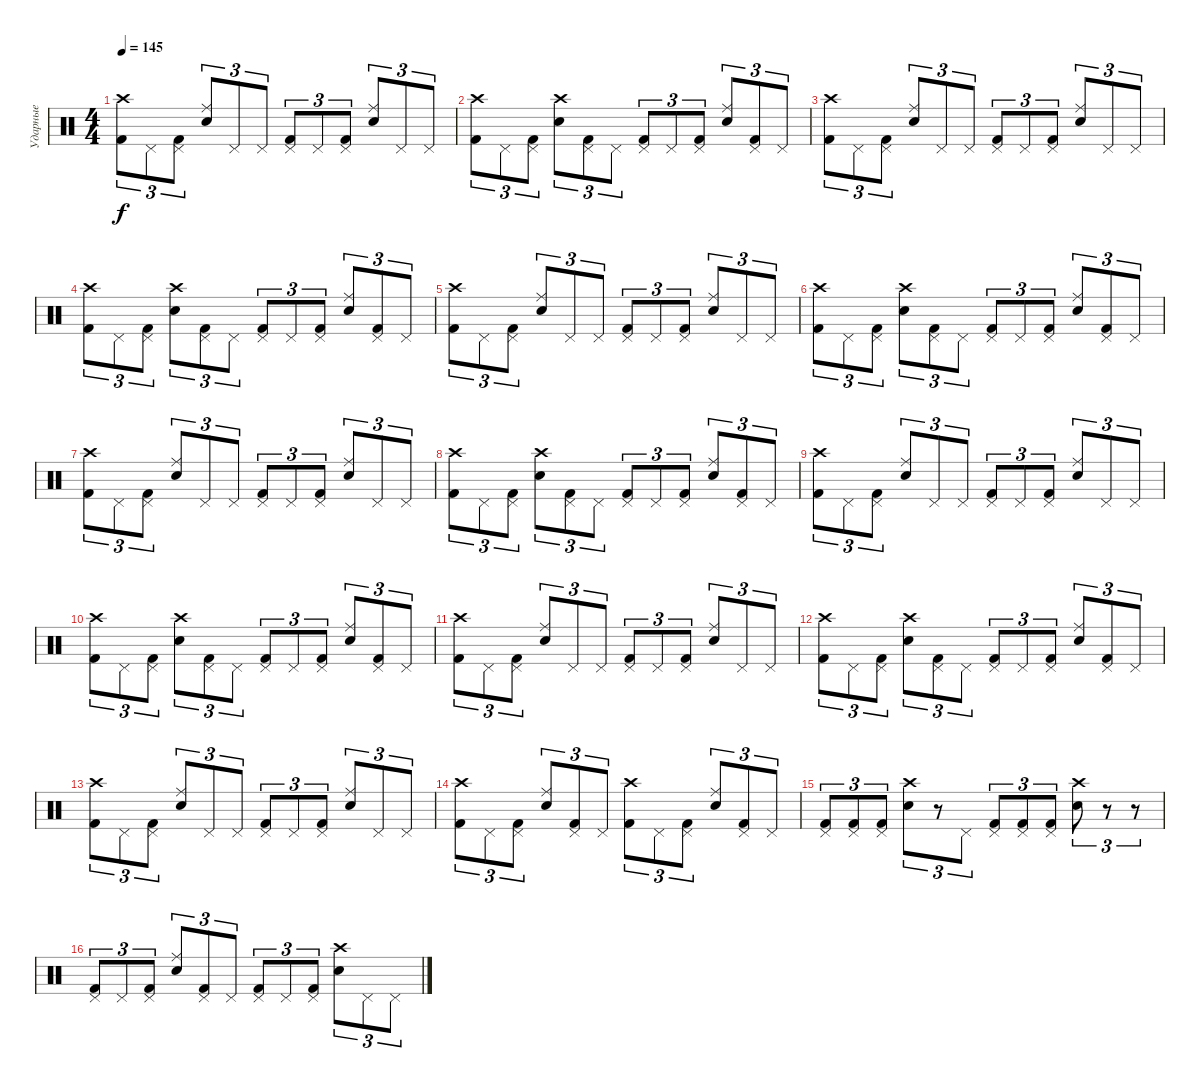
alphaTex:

\track ("Ударные" "Ударные") {instrument percussion}
\staff {score}
\articulation defaults
\ts (4 4)
\tempo 145
\clef neutral
\ks c
("Kick (hit) 2" "Crash high (hit)").8{tu (3 2) dy f} "Pedal Hi-Hat (hit)".8{tu (3 2)} ("Kick (hit) 2" "Pedal Hi-Hat (hit)").8{tu (3 2)} ("Electric Snare (hit)" "Ride (middle)").8{tu (3 2)} "Pedal Hi-Hat (hit)".8{tu (3 2)} "Pedal Hi-Hat (hit)".8{tu (3 2)} ("Kick (hit) 2" "Pedal Hi-Hat (hit)").8{tu (3 2)} "Pedal Hi-Hat (hit)".8{tu (3 2)} ("Pedal Hi-Hat (hit)" "Kick (hit) 2").8{tu (3 2)} ("Electric Snare (hit)" "Ride (middle)").8{tu (3 2)} "Pedal Hi-Hat (hit)".8{tu (3 2)} "Pedal Hi-Hat (hit)".8{tu (3 2)} |
("Kick (hit) 2" "Crash high (hit)").8{tu (3 2)} "Pedal Hi-Hat (hit)".8{tu (3 2)} ("Kick (hit) 2" "Pedal Hi-Hat (hit)").8{tu (3 2)} ("Electric Snare (hit)" "Crash high (hit)").8{tu (3 2)} ("Kick (hit) 2" "Pedal Hi-Hat (hit)").8{tu (3 2)} "Pedal Hi-Hat (hit)".8{tu (3 2)} ("Kick (hit) 2" "Pedal Hi-Hat (hit)").8{tu (3 2)} "Pedal Hi-Hat (hit)".8{tu (3 2)} ("Pedal Hi-Hat (hit)" "Kick (hit) 2").8{tu (3 2)} ("Electric Snare (hit)" "Ride (middle)").8{tu (3 2)} ("Kick (hit) 2" "Pedal Hi-Hat (hit)").8{tu (3 2)} "Pedal Hi-Hat (hit)".8{tu (3 2)} |
("Kick (hit) 2" "Crash high (hit)").8{tu (3 2)} "Pedal Hi-Hat (hit)".8{tu (3 2)} ("Kick (hit) 2" "Pedal Hi-Hat (hit)").8{tu (3 2)} ("Electric Snare (hit)" "Ride (middle)").8{tu (3 2)} "Pedal Hi-Hat (hit)".8{tu (3 2)} "Pedal Hi-Hat (hit)".8{tu (3 2)} ("Kick (hit) 2" "Pedal Hi-Hat (hit)").8{tu (3 2)} "Pedal Hi-Hat (hit)".8{tu (3 2)} ("Pedal Hi-Hat (hit)" "Kick (hit) 2").8{tu (3 2)} ("Electric Snare (hit)" "Ride (middle)").8{tu (3 2)} "Pedal Hi-Hat (hit)".8{tu (3 2)} "Pedal Hi-Hat (hit)".8{tu (3 2)} |
("Kick (hit) 2" "Crash high (hit)").8{tu (3 2)} "Pedal Hi-Hat (hit)".8{tu (3 2)} ("Kick (hit) 2" "Pedal Hi-Hat (hit)").8{tu (3 2)} ("Electric Snare (hit)" "Crash high (hit)").8{tu (3 2)} ("Kick (hit) 2" "Pedal Hi-Hat (hit)").8{tu (3 2)} "Pedal Hi-Hat (hit)".8{tu (3 2)} ("Kick (hit) 2" "Pedal Hi-Hat (hit)").8{tu (3 2)} "Pedal Hi-Hat (hit)".8{tu (3 2)} ("Pedal Hi-Hat (hit)" "Kick (hit) 2").8{tu (3 2)} ("Electric Snare (hit)" "Ride (middle)").8{tu (3 2)} ("Kick (hit) 2" "Pedal Hi-Hat (hit)").8{tu (3 2)} "Pedal Hi-Hat (hit)".8{tu (3 2)} |
("Kick (hit) 2" "Crash high (hit)").8{tu (3 2)} "Pedal Hi-Hat (hit)".8{tu (3 2)} ("Kick (hit) 2" "Pedal Hi-Hat (hit)").8{tu (3 2)} ("Electric Snare (hit)" "Ride (middle)").8{tu (3 2)} "Pedal Hi-Hat (hit)".8{tu (3 2)} "Pedal Hi-Hat (hit)".8{tu (3 2)} ("Kick (hit) 2" "Pedal Hi-Hat (hit)").8{tu (3 2)} "Pedal Hi-Hat (hit)".8{tu (3 2)} ("Pedal Hi-Hat (hit)" "Kick (hit) 2").8{tu (3 2)} ("Electric Snare (hit)" "Ride (middle)").8{tu (3 2)} "Pedal Hi-Hat (hit)".8{tu (3 2)} "Pedal Hi-Hat (hit)".8{tu (3 2)} |
("Kick (hit) 2" "Crash high (hit)").8{tu (3 2)} "Pedal Hi-Hat (hit)".8{tu (3 2)} ("Kick (hit) 2" "Pedal Hi-Hat (hit)").8{tu (3 2)} ("Electric Snare (hit)" "Crash high (hit)").8{tu (3 2)} ("Kick (hit) 2" "Pedal Hi-Hat (hit)").8{tu (3 2)} "Pedal Hi-Hat (hit)".8{tu (3 2)} ("Kick (hit) 2" "Pedal Hi-Hat (hit)").8{tu (3 2)} "Pedal Hi-Hat (hit)".8{tu (3 2)} ("Pedal Hi-Hat (hit)" "Kick (hit) 2").8{tu (3 2)} ("Electric Snare (hit)" "Ride (middle)").8{tu (3 2)} ("Kick (hit) 2" "Pedal Hi-Hat (hit)").8{tu (3 2)} "Pedal Hi-Hat (hit)".8{tu (3 2)} |
("Kick (hit) 2" "Crash high (hit)").8{tu (3 2)} "Pedal Hi-Hat (hit)".8{tu (3 2)} ("Kick (hit) 2" "Pedal Hi-Hat (hit)").8{tu (3 2)} ("Electric Snare (hit)" "Ride (middle)").8{tu (3 2)} "Pedal Hi-Hat (hit)".8{tu (3 2)} "Pedal Hi-Hat (hit)".8{tu (3 2)} ("Kick (hit) 2" "Pedal Hi-Hat (hit)").8{tu (3 2)} "Pedal Hi-Hat (hit)".8{tu (3 2)} ("Pedal Hi-Hat (hit)" "Kick (hit) 2").8{tu (3 2)} ("Electric Snare (hit)" "Ride (middle)").8{tu (3 2)} "Pedal Hi-Hat (hit)".8{tu (3 2)} "Pedal Hi-Hat (hit)".8{tu (3 2)} |
("Kick (hit) 2" "Crash high (hit)").8{tu (3 2)} "Pedal Hi-Hat (hit)".8{tu (3 2)} ("Kick (hit) 2" "Pedal Hi-Hat (hit)").8{tu (3 2)} ("Electric Snare (hit)" "Crash high (hit)").8{tu (3 2)} ("Kick (hit) 2" "Pedal Hi-Hat (hit)").8{tu (3 2)} "Pedal Hi-Hat (hit)".8{tu (3 2)} ("Kick (hit) 2" "Pedal Hi-Hat (hit)").8{tu (3 2)} "Pedal Hi-Hat (hit)".8{tu (3 2)} ("Pedal Hi-Hat (hit)" "Kick (hit) 2").8{tu (3 2)} ("Electric Snare (hit)" "Ride (middle)").8{tu (3 2)} ("Kick (hit) 2" "Pedal Hi-Hat (hit)").8{tu (3 2)} "Pedal Hi-Hat (hit)".8{tu (3 2)} |
("Kick (hit) 2" "Crash high (hit)").8{tu (3 2)} "Pedal Hi-Hat (hit)".8{tu (3 2)} ("Kick (hit) 2" "Pedal Hi-Hat (hit)").8{tu (3 2)} ("Electric Snare (hit)" "Ride (middle)").8{tu (3 2)} "Pedal Hi-Hat (hit)".8{tu (3 2)} "Pedal Hi-Hat (hit)".8{tu (3 2)} ("Kick (hit) 2" "Pedal Hi-Hat (hit)").8{tu (3 2)} "Pedal Hi-Hat (hit)".8{tu (3 2)} ("Pedal Hi-Hat (hit)" "Kick (hit) 2").8{tu (3 2)} ("Electric Snare (hit)" "Ride (middle)").8{tu (3 2)} "Pedal Hi-Hat (hit)".8{tu (3 2)} "Pedal Hi-Hat (hit)".8{tu (3 2)} |
("Kick (hit) 2" "Crash high (hit)").8{tu (3 2)} "Pedal Hi-Hat (hit)".8{tu (3 2)} ("Kick (hit) 2" "Pedal Hi-Hat (hit)").8{tu (3 2)} ("Electric Snare (hit)" "Crash high (hit)").8{tu (3 2)} ("Kick (hit) 2" "Pedal Hi-Hat (hit)").8{tu (3 2)} "Pedal Hi-Hat (hit)".8{tu (3 2)} ("Kick (hit) 2" "Pedal Hi-Hat (hit)").8{tu (3 2)} "Pedal Hi-Hat (hit)".8{tu (3 2)} ("Pedal Hi-Hat (hit)" "Kick (hit) 2").8{tu (3 2)} ("Electric Snare (hit)" "Ride (middle)").8{tu (3 2)} ("Kick (hit) 2" "Pedal Hi-Hat (hit)").8{tu (3 2)} "Pedal Hi-Hat (hit)".8{tu (3 2)} |
("Kick (hit) 2" "Crash high (hit)").8{tu (3 2)} "Pedal Hi-Hat (hit)".8{tu (3 2)} ("Kick (hit) 2" "Pedal Hi-Hat (hit)").8{tu (3 2)} ("Electric Snare (hit)" "Ride (middle)").8{tu (3 2)} "Pedal Hi-Hat (hit)".8{tu (3 2)} "Pedal Hi-Hat (hit)".8{tu (3 2)} ("Kick (hit) 2" "Pedal Hi-Hat (hit)").8{tu (3 2)} "Pedal Hi-Hat (hit)".8{tu (3 2)} ("Pedal Hi-Hat (hit)" "Kick (hit) 2").8{tu (3 2)} ("Electric Snare (hit)" "Ride (middle)").8{tu (3 2)} "Pedal Hi-Hat (hit)".8{tu (3 2)} "Pedal Hi-Hat (hit)".8{tu (3 2)} |
("Kick (hit) 2" "Crash high (hit)").8{tu (3 2)} "Pedal Hi-Hat (hit)".8{tu (3 2)} ("Kick (hit) 2" "Pedal Hi-Hat (hit)").8{tu (3 2)} ("Electric Snare (hit)" "Crash high (hit)").8{tu (3 2)} ("Kick (hit) 2" "Pedal Hi-Hat (hit)").8{tu (3 2)} "Pedal Hi-Hat (hit)".8{tu (3 2)} ("Kick (hit) 2" "Pedal Hi-Hat (hit)").8{tu (3 2)} "Pedal Hi-Hat (hit)".8{tu (3 2)} ("Pedal Hi-Hat (hit)" "Kick (hit) 2").8{tu (3 2)} ("Electric Snare (hit)" "Ride (middle)").8{tu (3 2)} ("Kick (hit) 2" "Pedal Hi-Hat (hit)").8{tu (3 2)} "Pedal Hi-Hat (hit)".8{tu (3 2)} |
("Kick (hit) 2" "Crash high (hit)").8{tu (3 2)} "Pedal Hi-Hat (hit)".8{tu (3 2)} ("Kick (hit) 2" "Pedal Hi-Hat (hit)").8{tu (3 2)} ("Electric Snare (hit)" "Ride (middle)").8{tu (3 2)} "Pedal Hi-Hat (hit)".8{tu (3 2)} "Pedal Hi-Hat (hit)".8{tu (3 2)} ("Kick (hit) 2" "Pedal Hi-Hat (hit)").8{tu (3 2)} "Pedal Hi-Hat (hit)".8{tu (3 2)} ("Pedal Hi-Hat (hit)" "Kick (hit) 2").8{tu (3 2)} ("Electric Snare (hit)" "Ride (middle)").8{tu (3 2)} "Pedal Hi-Hat (hit)".8{tu (3 2)} "Pedal Hi-Hat (hit)".8{tu (3 2)} |
("Kick (hit) 2" "Crash high (hit)").8{tu (3 2)} "Pedal Hi-Hat (hit)".8{tu (3 2)} ("Kick (hit) 2" "Pedal Hi-Hat (hit)").8{tu (3 2)} ("Electric Snare (hit)" "Ride (middle)").8{tu (3 2)} ("Kick (hit) 2" "Pedal Hi-Hat (hit)").8{tu (3 2)} "Pedal Hi-Hat (hit)".8{tu (3 2)} ("Kick (hit) 2" "Crash high (hit)").8{tu (3 2)} "Pedal Hi-Hat (hit)".8{tu (3 2)} ("Pedal Hi-Hat (hit)" "Kick (hit) 2").8{tu (3 2)} ("Electric Snare (hit)" "Ride (middle)").8{tu (3 2)} ("Kick (hit) 2" "Pedal Hi-Hat (hit)").8{tu (3 2)} "Pedal Hi-Hat (hit)".8{tu (3 2)} |
("Kick (hit) 2" "Pedal Hi-Hat (hit)").8{tu (3 2)} ("Kick (hit) 2" "Pedal Hi-Hat (hit)").8{tu (3 2)} ("Kick (hit) 2" "Pedal Hi-Hat (hit)").8{tu (3 2)} ("Crash high (hit)" "Electric Snare (hit)").8{tu (3 2)} r.8{tu (3 2)} "Pedal Hi-Hat (hit)".8{tu (3 2)} ("Kick (hit) 2" "Pedal Hi-Hat (hit)").8{tu (3 2)} ("Kick (hit) 2" "Pedal Hi-Hat (hit)").8{tu (3 2)} ("Kick (hit) 2" "Pedal Hi-Hat (hit)").8{tu (3 2)} ("Electric Snare (hit)" "Crash high (hit)").8{tu (3 2)} r.8{tu (3 2)} r.8{tu (3 2)} |
("Kick (hit) 2" "Pedal Hi-Hat (hit)").8{tu (3 2)} "Pedal Hi-Hat (hit)".8{tu (3 2)} ("Kick (hit) 2" "Pedal Hi-Hat (hit)").8{tu (3 2)} ("Electric Snare (hit)" "Ride (middle)").8{tu (3 2)} ("Kick (hit) 2" "Pedal Hi-Hat (hit)").8{tu (3 2)} "Pedal Hi-Hat (hit)".8{tu (3 2)} ("Kick (hit) 2" "Pedal Hi-Hat (hit)").8{tu (3 2)} "Pedal Hi-Hat (hit)".8{tu (3 2)} ("Pedal Hi-Hat (hit)" "Kick (hit) 2").8{tu (3 2)} ("Electric Snare (hit)" "Crash high (hit)").8{tu (3 2)} "Pedal Hi-Hat (hit)".8{tu (3 2)} "Pedal Hi-Hat (hit)".8{tu (3 2)}
